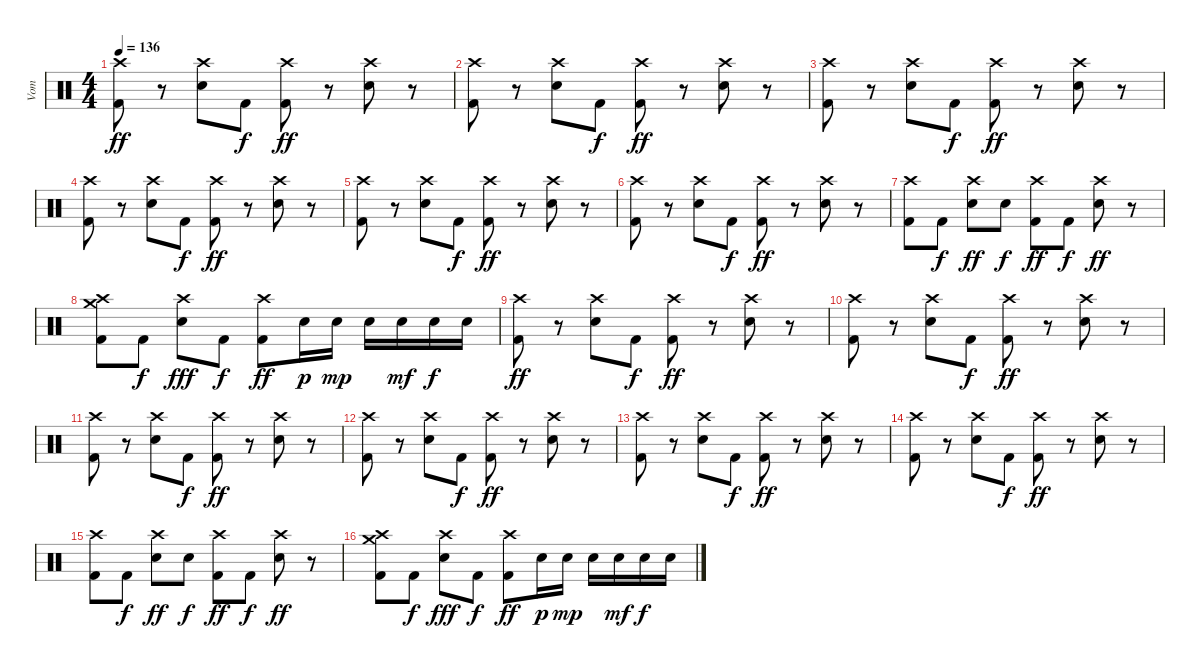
\track ("Vom" "Vom") {instrument percussion}
\staff {score}
\articulation defaults
\ts (4 4)
\tempo 136
\clef neutral
\ks c
("Crash high (hit)" "Kick (hit) 2").8{dy ff volume 5} r.8 ("Crash high (hit)" "Snare (hit) 2").8 "Kick (hit) 2".8{dy f} ("Crash high (hit)" "Kick (hit) 2").8{dy ff} r.8 ("Crash high (hit)" "Snare (hit) 2").8 r.8 |
("Crash high (hit)" "Kick (hit) 2").8 r.8 ("Crash high (hit)" "Snare (hit) 2").8 "Kick (hit) 2".8{dy f} ("Crash high (hit)" "Kick (hit) 2").8{dy ff} r.8 ("Crash high (hit)" "Snare (hit) 2").8 r.8 |
("Crash high (hit)" "Kick (hit) 2").8 r.8 ("Crash high (hit)" "Snare (hit) 2").8 "Kick (hit) 2".8{dy f} ("Crash high (hit)" "Kick (hit) 2").8{dy ff} r.8 ("Crash high (hit)" "Snare (hit) 2").8 r.8 |
("Crash high (hit)" "Kick (hit) 2").8 r.8 ("Crash high (hit)" "Snare (hit) 2").8 "Kick (hit) 2".8{dy f} ("Crash high (hit)" "Kick (hit) 2").8{dy ff} r.8 ("Crash high (hit)" "Snare (hit) 2").8 r.8 |
("Crash high (hit)" "Kick (hit) 2").8{volume 4} r.8 ("Crash high (hit)" "Snare (hit) 2").8 "Kick (hit) 2".8{dy f} ("Crash high (hit)" "Kick (hit) 2").8{dy ff} r.8 ("Crash high (hit)" "Snare (hit) 2").8 r.8 |
("Crash high (hit)" "Kick (hit) 2").8 r.8 ("Crash high (hit)" "Snare (hit) 2").8 "Kick (hit) 2".8{dy f} ("Crash high (hit)" "Kick (hit) 2").8{dy ff} r.8 ("Crash high (hit)" "Snare (hit) 2").8 r.8 |
("Crash high (hit)" "Kick (hit) 2").8 "Kick (hit) 2".8{dy f} ("Crash high (hit)" "Snare (hit) 2").8{dy ff} "Snare (hit) 2".8{dy f} ("Crash high (hit)" "Kick (hit) 2").8{dy ff} "Kick (hit) 2".8{dy f} ("Crash high (hit)" "Snare (hit) 2").8{dy ff} r.8 |
("Crash high (hit)" "Kick (hit) 2" "Crash medium (hit)").8 "Kick (hit) 2".8{dy f} ("Crash high (hit)" "Snare (hit) 2").8{dy fff} "Kick (hit) 2".8{dy f} ("Crash high (hit)" "Kick (hit) 2").8{dy ff} "Snare (hit) 2".16{dy p} "Snare (hit) 2".16{dy mp} "Snare (hit) 2".16 "Snare (hit) 2".16{dy mf} "Snare (hit) 2".16{dy f} "Snare (hit) 2".16 |
("Crash high (hit)" "Kick (hit) 2").8{dy ff} r.8 ("Crash high (hit)" "Snare (hit) 2").8 "Kick (hit) 2".8{dy f} ("Crash high (hit)" "Kick (hit) 2").8{dy ff} r.8 ("Crash high (hit)" "Snare (hit) 2").8 r.8 |
("Crash high (hit)" "Kick (hit) 2").8 r.8 ("Crash high (hit)" "Snare (hit) 2").8 "Kick (hit) 2".8{dy f} ("Crash high (hit)" "Kick (hit) 2").8{dy ff} r.8 ("Crash high (hit)" "Snare (hit) 2").8 r.8 |
("Crash high (hit)" "Kick (hit) 2").8 r.8 ("Crash high (hit)" "Snare (hit) 2").8 "Kick (hit) 2".8{dy f} ("Crash high (hit)" "Kick (hit) 2").8{dy ff} r.8 ("Crash high (hit)" "Snare (hit) 2").8 r.8 |
("Crash high (hit)" "Kick (hit) 2").8 r.8 ("Crash high (hit)" "Snare (hit) 2").8 "Kick (hit) 2".8{dy f} ("Crash high (hit)" "Kick (hit) 2").8{dy ff} r.8 ("Crash high (hit)" "Snare (hit) 2").8 r.8 |
("Crash high (hit)" "Kick (hit) 2").8{volume 0} r.8 ("Crash high (hit)" "Snare (hit) 2").8 "Kick (hit) 2".8{dy f} ("Crash high (hit)" "Kick (hit) 2").8{dy ff} r.8 ("Crash high (hit)" "Snare (hit) 2").8 r.8 |
("Crash high (hit)" "Kick (hit) 2").8 r.8 ("Crash high (hit)" "Snare (hit) 2").8 "Kick (hit) 2".8{dy f} ("Crash high (hit)" "Kick (hit) 2").8{dy ff} r.8 ("Crash high (hit)" "Snare (hit) 2").8 r.8 |
("Crash high (hit)" "Kick (hit) 2").8 "Kick (hit) 2".8{dy f} ("Crash high (hit)" "Snare (hit) 2").8{dy ff} "Snare (hit) 2".8{dy f} ("Crash high (hit)" "Kick (hit) 2").8{dy ff} "Kick (hit) 2".8{dy f} ("Crash high (hit)" "Snare (hit) 2").8{dy ff} r.8 |
("Crash high (hit)" "Kick (hit) 2" "Crash medium (hit)").8 "Kick (hit) 2".8{dy f} ("Crash high (hit)" "Snare (hit) 2").8{dy fff} "Kick (hit) 2".8{dy f} ("Crash high (hit)" "Kick (hit) 2").8{dy ff} "Snare (hit) 2".16{dy p} "Snare (hit) 2".16{dy mp} "Snare (hit) 2".16 "Snare (hit) 2".16{dy mf} "Snare (hit) 2".16{dy f} "Snare (hit) 2".16
